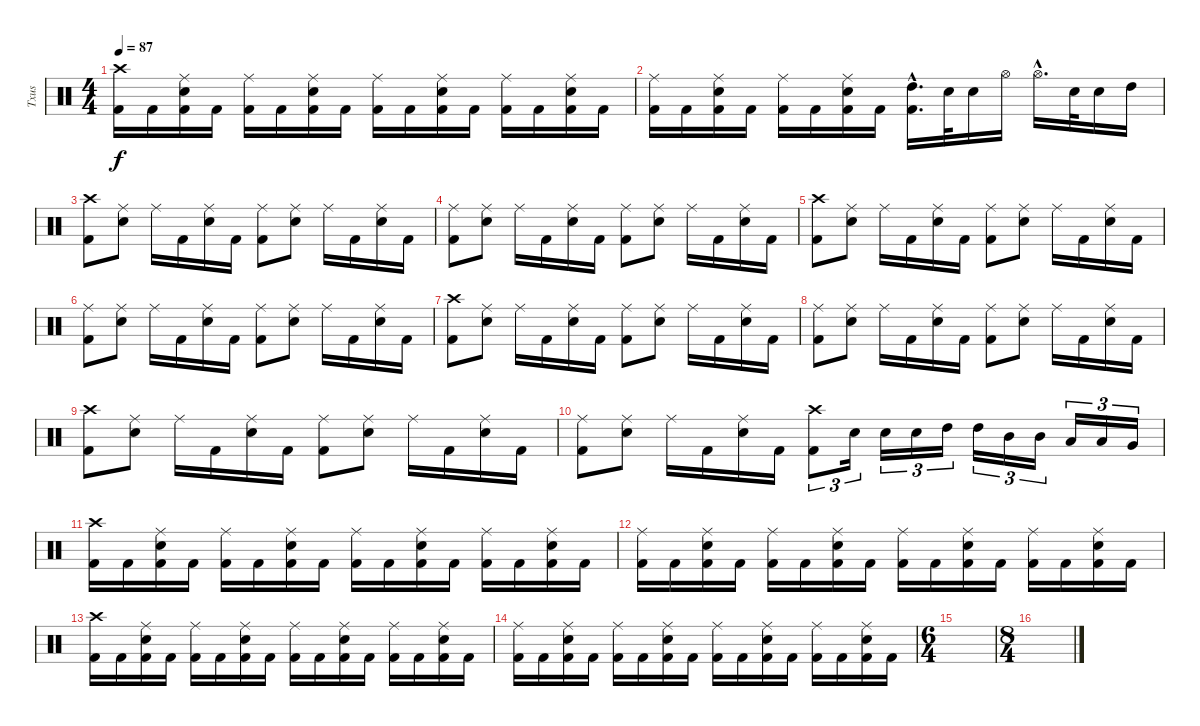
\track ("Txus" "Txus") {instrument percussion}
\staff {score}
\articulation defaults
\ts (4 4)
\tempo 87
\clef neutral
\ks c
("Kick (hit) 2" "Crash high (hit)").16{dy f} "Kick (hit) 2".16 ("Kick (hit) 2" "Electric Snare (hit)" "Ride (middle)").16 "Kick (hit) 2".16 ("Kick (hit) 2" "Ride (middle)").16 "Kick (hit) 2".16 ("Kick (hit) 2" "Electric Snare (hit)" "Ride (middle)").16 "Kick (hit) 2".16 ("Kick (hit) 2" "Ride (middle)").16 "Kick (hit) 2".16 ("Kick (hit) 2" "Electric Snare (hit)" "Ride (middle)").16 "Kick (hit) 2".16 ("Kick (hit) 2" "Ride (middle)").16 "Kick (hit) 2".16 ("Kick (hit) 2" "Electric Snare (hit)" "Ride (middle)").16 "Kick (hit) 2".16 |
("Kick (hit) 2" "Ride (middle)").16 "Kick (hit) 2".16 ("Kick (hit) 2" "Electric Snare (hit)" "Ride (middle)").16 "Kick (hit) 2".16 ("Kick (hit) 2" "Ride (middle)").16 "Kick (hit) 2".16 ("Kick (hit) 2" "Electric Snare (hit)" "Ride (middle)").16 "Kick (hit) 2".16 ("Kick (hit) 2"{hac} "High Tom (hit)"{hac}).16{d} "Electric Snare (hit)".32 "Electric Snare (hit)".16 "Hi-Hat (open)".16 "Hi-Hat (open)"{hac}.16{d} "Electric Snare (hit)".32 "Electric Snare (hit)".16 "High Tom (hit)".16 |
("Kick (hit) 2" "Crash high (hit)").8 ("Electric Snare (hit)" "Ride (middle)").8 "Ride (middle)".16 "Kick (hit) 2".16 ("Electric Snare (hit)" "Ride (middle)").16 "Kick (hit) 2".16 ("Kick (hit) 2" "Ride (middle)").8 ("Electric Snare (hit)" "Ride (middle)").8 "Ride (middle)".16 "Kick (hit) 2".16 ("Electric Snare (hit)" "Ride (middle)").16 "Kick (hit) 2".16 |
("Kick (hit) 2" "Ride (middle)").8{volume 10} ("Electric Snare (hit)" "Ride (middle)").8 "Ride (middle)".16 "Kick (hit) 2".16 ("Electric Snare (hit)" "Ride (middle)").16 "Kick (hit) 2".16 ("Kick (hit) 2" "Ride (middle)").8 ("Electric Snare (hit)" "Ride (middle)").8 "Ride (middle)".16 "Kick (hit) 2".16 ("Electric Snare (hit)" "Ride (middle)").16 "Kick (hit) 2".16 |
("Kick (hit) 2" "Crash high (hit)").8 ("Electric Snare (hit)" "Ride (middle)").8 "Ride (middle)".16 "Kick (hit) 2".16 ("Electric Snare (hit)" "Ride (middle)").16 "Kick (hit) 2".16 ("Kick (hit) 2" "Ride (middle)").8 ("Electric Snare (hit)" "Ride (middle)").8 "Ride (middle)".16 "Kick (hit) 2".16 ("Electric Snare (hit)" "Ride (middle)").16 "Kick (hit) 2".16 |
("Kick (hit) 2" "Ride (middle)").8 ("Electric Snare (hit)" "Ride (middle)").8 "Ride (middle)".16 "Kick (hit) 2".16 ("Electric Snare (hit)" "Ride (middle)").16 "Kick (hit) 2".16 ("Kick (hit) 2" "Ride (middle)").8 ("Electric Snare (hit)" "Ride (middle)").8 "Ride (middle)".16 "Kick (hit) 2".16 ("Electric Snare (hit)" "Ride (middle)").16 "Kick (hit) 2".16 |
("Kick (hit) 2" "Crash high (hit)").8 ("Electric Snare (hit)" "Ride (middle)").8 "Ride (middle)".16 "Kick (hit) 2".16 ("Electric Snare (hit)" "Ride (middle)").16 "Kick (hit) 2".16 ("Kick (hit) 2" "Ride (middle)").8 ("Electric Snare (hit)" "Ride (middle)").8 "Ride (middle)".16 "Kick (hit) 2".16 ("Electric Snare (hit)" "Ride (middle)").16 "Kick (hit) 2".16 |
("Kick (hit) 2" "Ride (middle)").8{volume 6} ("Electric Snare (hit)" "Ride (middle)").8 "Ride (middle)".16 "Kick (hit) 2".16 ("Electric Snare (hit)" "Ride (middle)").16 "Kick (hit) 2".16 ("Kick (hit) 2" "Ride (middle)").8 ("Electric Snare (hit)" "Ride (middle)").8 "Ride (middle)".16 "Kick (hit) 2".16 ("Electric Snare (hit)" "Ride (middle)").16 "Kick (hit) 2".16 |
("Kick (hit) 2" "Crash high (hit)").8 ("Electric Snare (hit)" "Ride (middle)").8 "Ride (middle)".16 "Kick (hit) 2".16 ("Electric Snare (hit)" "Ride (middle)").16 "Kick (hit) 2".16 ("Kick (hit) 2" "Ride (middle)").8 ("Electric Snare (hit)" "Ride (middle)").8 "Ride (middle)".16 "Kick (hit) 2".16 ("Electric Snare (hit)" "Ride (middle)").16 "Kick (hit) 2".16 |
("Kick (hit) 2" "Ride (middle)").8 ("Electric Snare (hit)" "Ride (middle)").8 "Ride (middle)".16 "Kick (hit) 2".16 ("Electric Snare (hit)" "Ride (middle)").16 "Kick (hit) 2".16 ("Kick (hit) 2" "Crash high (hit)").8{tu (3 2)} "Electric Snare (hit)".16{tu (3 2)} "Electric Snare (hit)".16{tu (3 2)} "Electric Snare (hit)".16{tu (3 2)} "High Tom (hit)".16{tu (3 2)} "High Tom (hit)".16{tu (3 2)} "Mid Tom (hit)".16{tu (3 2)} "Mid Tom (hit)".16{tu (3 2)} "Low Tom (hit)".16{tu (3 2)} "Low Tom (hit)".16{tu (3 2)} "Very Low Tom (hit)".16{tu (3 2)} |
("Kick (hit) 2" "Crash high (hit)").16{volume 0} "Kick (hit) 2".16 ("Kick (hit) 2" "Electric Snare (hit)" "Ride (middle)").16 "Kick (hit) 2".16 ("Kick (hit) 2" "Ride (middle)").16 "Kick (hit) 2".16 ("Kick (hit) 2" "Electric Snare (hit)" "Ride (middle)").16 "Kick (hit) 2".16 ("Kick (hit) 2" "Ride (middle)").16 "Kick (hit) 2".16 ("Kick (hit) 2" "Electric Snare (hit)" "Ride (middle)").16 "Kick (hit) 2".16 ("Kick (hit) 2" "Ride (middle)").16 "Kick (hit) 2".16 ("Kick (hit) 2" "Electric Snare (hit)" "Ride (middle)").16 "Kick (hit) 2".16 |
("Kick (hit) 2" "Ride (middle)").16 "Kick (hit) 2".16 ("Kick (hit) 2" "Electric Snare (hit)" "Ride (middle)").16 "Kick (hit) 2".16 ("Kick (hit) 2" "Ride (middle)").16 "Kick (hit) 2".16 ("Kick (hit) 2" "Electric Snare (hit)" "Ride (middle)").16 "Kick (hit) 2".16 ("Kick (hit) 2" "Ride (middle)").16 "Kick (hit) 2".16 ("Kick (hit) 2" "Electric Snare (hit)" "Ride (middle)").16 "Kick (hit) 2".16 ("Kick (hit) 2" "Ride (middle)").16 "Kick (hit) 2".16 ("Kick (hit) 2" "Electric Snare (hit)" "Ride (middle)").16 "Kick (hit) 2".16 |
("Kick (hit) 2" "Crash high (hit)").16 "Kick (hit) 2".16 ("Kick (hit) 2" "Electric Snare (hit)" "Ride (middle)").16 "Kick (hit) 2".16 ("Kick (hit) 2" "Ride (middle)").16 "Kick (hit) 2".16 ("Kick (hit) 2" "Electric Snare (hit)" "Ride (middle)").16 "Kick (hit) 2".16 ("Kick (hit) 2" "Ride (middle)").16 "Kick (hit) 2".16 ("Kick (hit) 2" "Electric Snare (hit)" "Ride (middle)").16 "Kick (hit) 2".16 ("Kick (hit) 2" "Ride (middle)").16 "Kick (hit) 2".16 ("Kick (hit) 2" "Electric Snare (hit)" "Ride (middle)").16 "Kick (hit) 2".16 |
("Kick (hit) 2" "Ride (middle)").16 "Kick (hit) 2".16 ("Kick (hit) 2" "Electric Snare (hit)" "Ride (middle)").16 "Kick (hit) 2".16 ("Kick (hit) 2" "Ride (middle)").16 "Kick (hit) 2".16 ("Kick (hit) 2" "Electric Snare (hit)" "Ride (middle)").16 "Kick (hit) 2".16 ("Kick (hit) 2" "Ride (middle)").16 "Kick (hit) 2".16 ("Kick (hit) 2" "Electric Snare (hit)" "Ride (middle)").16 "Kick (hit) 2".16 ("Kick (hit) 2" "Ride (middle)").16 "Kick (hit) 2".16 ("Kick (hit) 2" "Electric Snare (hit)" "Ride (middle)").16 "Kick (hit) 2".16 |
\ts (6 4)
|
\ts (8 4)
